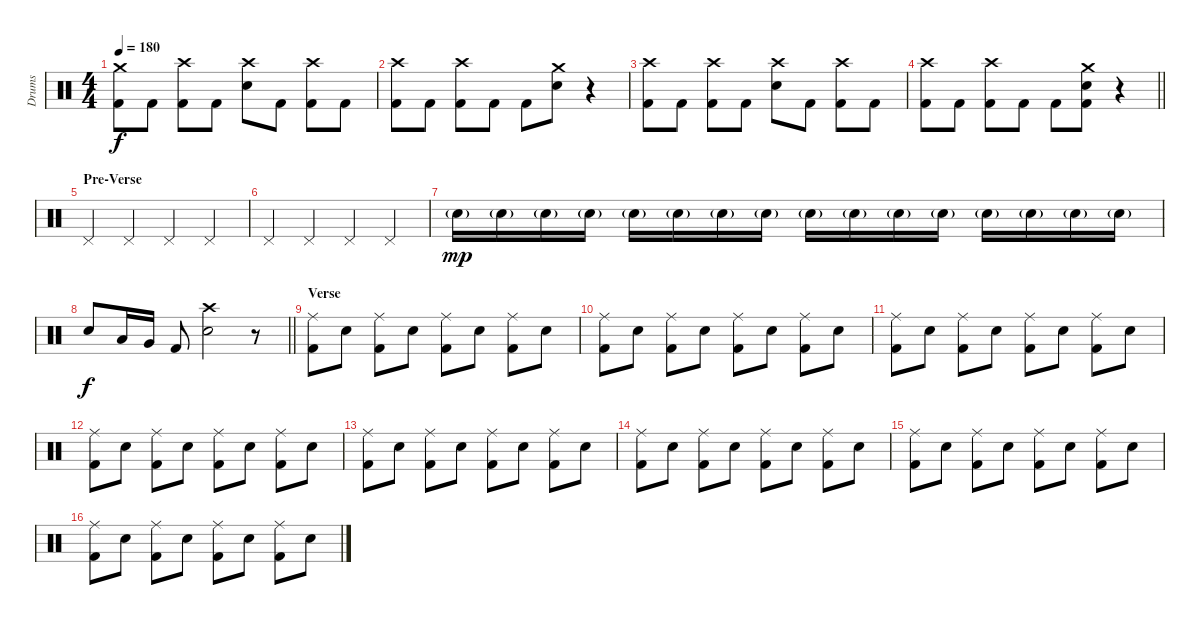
\track ("Drums" "Drums") {instrument percussion}
\staff {score}
\articulation defaults
\ts (4 4)
\tempo 180
\clef neutral
\ks c
("Crash medium (hit)" "Kick (hit) 2").8{dy f} "Kick (hit) 2".8 ("Crash high (hit)" "Kick (hit) 2").8 "Kick (hit) 2".8 ("Crash high (hit)" "Snare (hit) 2").8 "Kick (hit) 2".8 ("Crash high (hit)" "Kick (hit) 2").8 "Kick (hit) 2".8 |
("Crash high (hit)" "Kick (hit) 2").8 "Kick (hit) 2".8 ("Crash high (hit)" "Kick (hit) 2").8 "Kick (hit) 2".8 "Kick (hit) 2".8 ("Crash medium (hit)" "Snare (hit) 2").8 r.4 |
("Crash high (hit)" "Kick (hit) 2").8 "Kick (hit) 2".8 ("Crash high (hit)" "Kick (hit) 2").8 "Kick (hit) 2".8 ("Crash high (hit)" "Snare (hit) 2").8 "Kick (hit) 2".8 ("Crash high (hit)" "Kick (hit) 2").8 "Kick (hit) 2".8 |
\barLineRight lightlight
("Crash high (hit)" "Kick (hit) 2").8 "Kick (hit) 2".8 ("Crash high (hit)" "Kick (hit) 2").8 "Kick (hit) 2".8 "Kick (hit) 2".8 ("Crash medium (hit)" "Snare (hit) 2" "Kick (hit) 2").8 r.4 |
\section ("" "Pre-Verse")
"Pedal Hi-Hat (hit)".4 "Pedal Hi-Hat (hit)".4 "Pedal Hi-Hat (hit)".4 "Pedal Hi-Hat (hit)".4 |
"Pedal Hi-Hat (hit)".4 "Pedal Hi-Hat (hit)".4 "Pedal Hi-Hat (hit)".4 "Pedal Hi-Hat (hit)".4 |
"Snare (hit) 2"{g}.16{dy mp} "Snare (hit) 2"{g}.16 "Snare (hit) 2"{g}.16 "Snare (hit) 2"{g}.16 "Snare (hit) 2"{g}.16 "Snare (hit) 2"{g}.16 "Snare (hit) 2"{g}.16 "Snare (hit) 2"{g}.16 "Snare (hit) 2"{g}.16 "Snare (hit) 2"{g}.16 "Snare (hit) 2"{g}.16 "Snare (hit) 2"{g}.16 "Snare (hit) 2"{g}.16 "Snare (hit) 2"{g}.16 "Snare (hit) 2"{g}.16 "Snare (hit) 2"{g}.16 |
\barLineRight lightlight "Snare (hit) 2".8{dy f} "Low Tom (hit)".16 "Very Low Tom (hit)".16 "Kick (hit) 2".8
("Crash high (hit)" "Snare (hit) 2").2 r.8 |
\section ("" "Verse")
("Ride (middle)" "Kick (hit) 2").8 "Snare (hit) 2".8 ("Ride (middle)" "Kick (hit) 2").8 "Snare (hit) 2".8 ("Ride (middle)" "Kick (hit) 2").8 "Snare (hit) 2".8 ("Ride (middle)" "Kick (hit) 2").8 "Snare (hit) 2".8 |
("Ride (middle)" "Kick (hit) 2").8 "Snare (hit) 2".8 ("Ride (middle)" "Kick (hit) 2").8 "Snare (hit) 2".8 ("Ride (middle)" "Kick (hit) 2").8 "Snare (hit) 2".8 ("Ride (middle)" "Kick (hit) 2").8 "Snare (hit) 2".8 |
("Ride (middle)" "Kick (hit) 2").8 "Snare (hit) 2".8 ("Ride (middle)" "Kick (hit) 2").8 "Snare (hit) 2".8 ("Ride (middle)" "Kick (hit) 2").8 "Snare (hit) 2".8 ("Ride (middle)" "Kick (hit) 2").8 "Snare (hit) 2".8 |
("Ride (middle)" "Kick (hit) 2").8 "Snare (hit) 2".8 ("Ride (middle)" "Kick (hit) 2").8 "Snare (hit) 2".8 ("Ride (middle)" "Kick (hit) 2").8 "Snare (hit) 2".8 ("Ride (middle)" "Kick (hit) 2").8 "Snare (hit) 2".8 |
("Ride (middle)" "Kick (hit) 2").8 "Snare (hit) 2".8 ("Ride (middle)" "Kick (hit) 2").8 "Snare (hit) 2".8 ("Ride (middle)" "Kick (hit) 2").8 "Snare (hit) 2".8 ("Ride (middle)" "Kick (hit) 2").8 "Snare (hit) 2".8 |
("Ride (middle)" "Kick (hit) 2").8 "Snare (hit) 2".8 ("Ride (middle)" "Kick (hit) 2").8 "Snare (hit) 2".8 ("Ride (middle)" "Kick (hit) 2").8 "Snare (hit) 2".8 ("Ride (middle)" "Kick (hit) 2").8 "Snare (hit) 2".8 |
("Ride (middle)" "Kick (hit) 2").8 "Snare (hit) 2".8 ("Ride (middle)" "Kick (hit) 2").8 "Snare (hit) 2".8 ("Ride (middle)" "Kick (hit) 2").8 "Snare (hit) 2".8 ("Ride (middle)" "Kick (hit) 2").8 "Snare (hit) 2".8 |
("Ride (middle)" "Kick (hit) 2").8 "Snare (hit) 2".8 ("Ride (middle)" "Kick (hit) 2").8 "Snare (hit) 2".8 ("Ride (middle)" "Kick (hit) 2").8 "Snare (hit) 2".8 ("Ride (middle)" "Kick (hit) 2").8 "Snare (hit) 2".8
